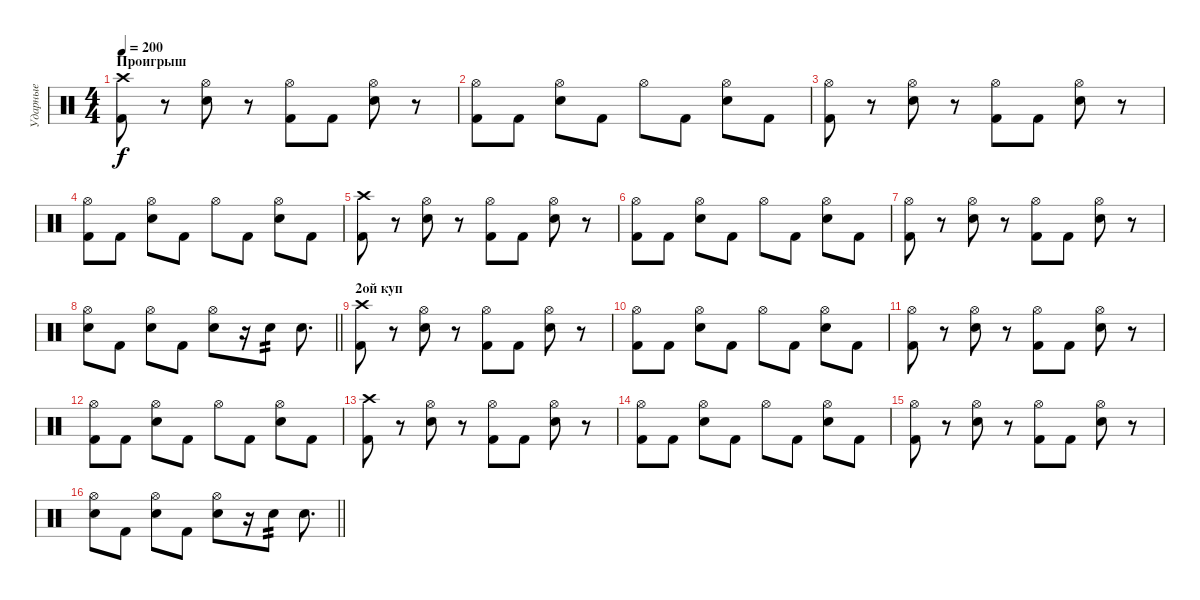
\track ("Ударные" "Ударные") {instrument percussion}
\staff {score}
\articulation defaults
\ts (4 4)
\section ("" "Проигрыш")
\tempo 200
\clef neutral
\ks c
("Crash high (hit)" "Kick (hit) 2").8{dy f} r.8 ("Hi-Hat (open)" "Electric Snare (hit)").8 r.8 ("Hi-Hat (open)" "Kick (hit) 2").8 "Kick (hit) 2".8 ("Hi-Hat (open)" "Electric Snare (hit)").8 r.8 |
("Hi-Hat (open)" "Kick (hit) 2").8 "Kick (hit) 2".8 ("Hi-Hat (open)" "Electric Snare (hit)").8 "Kick (hit) 2".8 "Hi-Hat (open)".8 "Kick (hit) 2".8 ("Hi-Hat (open)" "Electric Snare (hit)").8 "Kick (hit) 2".8 |
("Hi-Hat (open)" "Kick (hit) 2").8 r.8 ("Hi-Hat (open)" "Electric Snare (hit)").8 r.8 ("Hi-Hat (open)" "Kick (hit) 2").8 "Kick (hit) 2".8 ("Hi-Hat (open)" "Electric Snare (hit)").8 r.8 |
("Hi-Hat (open)" "Kick (hit) 2").8 "Kick (hit) 2".8 ("Hi-Hat (open)" "Electric Snare (hit)").8 "Kick (hit) 2".8 "Hi-Hat (open)".8 "Kick (hit) 2".8 ("Hi-Hat (open)" "Electric Snare (hit)").8 "Kick (hit) 2".8 |
("Crash high (hit)" "Kick (hit) 2").8 r.8 ("Hi-Hat (open)" "Electric Snare (hit)").8 r.8 ("Hi-Hat (open)" "Kick (hit) 2").8 "Kick (hit) 2".8 ("Hi-Hat (open)" "Electric Snare (hit)").8 r.8 |
("Hi-Hat (open)" "Kick (hit) 2").8 "Kick (hit) 2".8 ("Hi-Hat (open)" "Electric Snare (hit)").8 "Kick (hit) 2".8 "Hi-Hat (open)".8 "Kick (hit) 2".8 ("Hi-Hat (open)" "Electric Snare (hit)").8 "Kick (hit) 2".8 |
("Hi-Hat (open)" "Kick (hit) 2").8 r.8 ("Hi-Hat (open)" "Electric Snare (hit)").8 r.8 ("Hi-Hat (open)" "Kick (hit) 2").8 "Kick (hit) 2".8 ("Hi-Hat (open)" "Electric Snare (hit)").8 r.8 |
\barLineRight lightlight
("Hi-Hat (open)" "Electric Snare (hit)").8 "Kick (hit) 2".8 ("Hi-Hat (open)" "Electric Snare (hit)").8 "Kick (hit) 2".8 ("Hi-Hat (open)" "Electric Snare (hit)").8 r.16 "Electric Snare (hit)".8{tp 2} "Electric Snare (hit)".8{d} |
\section ("" "2ой куп")
("Crash high (hit)" "Kick (hit) 2").8 r.8 ("Hi-Hat (open)" "Electric Snare (hit)").8 r.8 ("Hi-Hat (open)" "Kick (hit) 2").8 "Kick (hit) 2".8 ("Hi-Hat (open)" "Electric Snare (hit)").8 r.8 |
("Hi-Hat (open)" "Kick (hit) 2").8 "Kick (hit) 2".8 ("Hi-Hat (open)" "Electric Snare (hit)").8 "Kick (hit) 2".8 "Hi-Hat (open)".8 "Kick (hit) 2".8 ("Hi-Hat (open)" "Electric Snare (hit)").8 "Kick (hit) 2".8 |
("Hi-Hat (open)" "Kick (hit) 2").8 r.8 ("Hi-Hat (open)" "Electric Snare (hit)").8 r.8 ("Hi-Hat (open)" "Kick (hit) 2").8 "Kick (hit) 2".8 ("Hi-Hat (open)" "Electric Snare (hit)").8 r.8 |
("Hi-Hat (open)" "Kick (hit) 2").8 "Kick (hit) 2".8 ("Hi-Hat (open)" "Electric Snare (hit)").8 "Kick (hit) 2".8 "Hi-Hat (open)".8 "Kick (hit) 2".8 ("Hi-Hat (open)" "Electric Snare (hit)").8 "Kick (hit) 2".8 |
("Crash high (hit)" "Kick (hit) 2").8 r.8 ("Hi-Hat (open)" "Electric Snare (hit)").8 r.8 ("Hi-Hat (open)" "Kick (hit) 2").8 "Kick (hit) 2".8 ("Hi-Hat (open)" "Electric Snare (hit)").8 r.8 |
("Hi-Hat (open)" "Kick (hit) 2").8 "Kick (hit) 2".8 ("Hi-Hat (open)" "Electric Snare (hit)").8 "Kick (hit) 2".8 "Hi-Hat (open)".8 "Kick (hit) 2".8 ("Hi-Hat (open)" "Electric Snare (hit)").8 "Kick (hit) 2".8 |
("Hi-Hat (open)" "Kick (hit) 2").8 r.8 ("Hi-Hat (open)" "Electric Snare (hit)").8 r.8 ("Hi-Hat (open)" "Kick (hit) 2").8 "Kick (hit) 2".8 ("Hi-Hat (open)" "Electric Snare (hit)").8 r.8 |
\barLineRight lightlight
("Hi-Hat (open)" "Electric Snare (hit)").8 "Kick (hit) 2".8 ("Hi-Hat (open)" "Electric Snare (hit)").8 "Kick (hit) 2".8 ("Hi-Hat (open)" "Electric Snare (hit)").8 r.16 "Electric Snare (hit)".8{tp 2} "Electric Snare (hit)".8{d}
